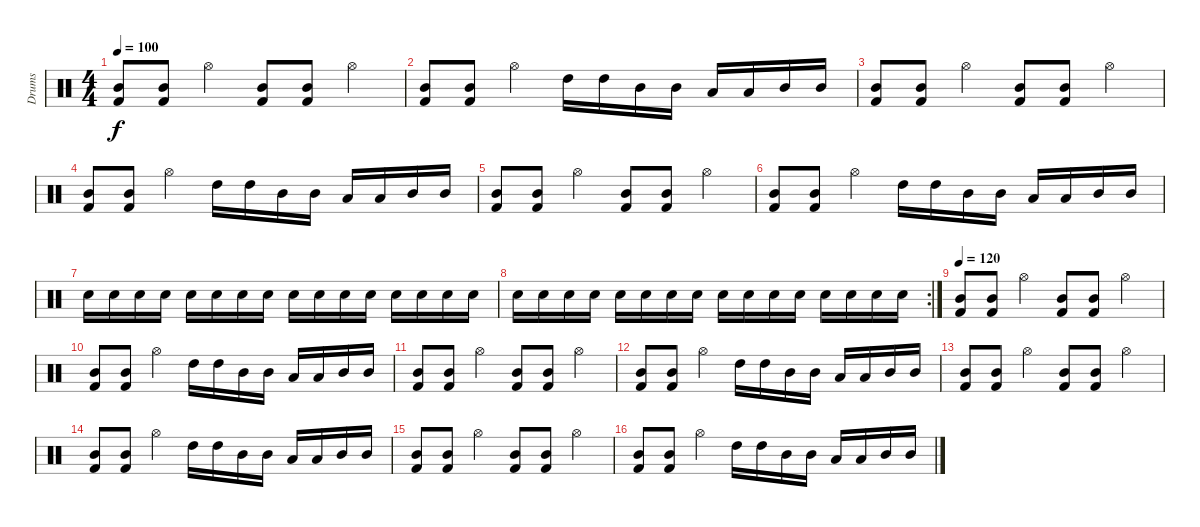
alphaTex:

\track ("Drums" "Drums") {instrument percussion}
\staff {score}
\articulation defaults
\ts (4 4)
\tempo 100
\clef neutral
\ks c
("Kick (hit) 2" "Mid Tom (hit)").8{dy f} ("Kick (hit) 2" "Mid Tom (hit)").8 "Hi-Hat (open)".4 ("Kick (hit) 2" "Mid Tom (hit)").8 ("Kick (hit) 2" "Mid Tom (hit)").8 "Hi-Hat (open)".4 |
("Kick (hit) 2" "Mid Tom (hit)").8 ("Kick (hit) 2" "Mid Tom (hit)").8 "Hi-Hat (open)".4 "High Tom (hit)".16 "High Tom (hit)".16 "Mid Tom (hit)".16 "Mid Tom (hit)".16 "Low Tom (hit)".16 "Low Tom (hit)".16 "Mid Tom (hit)".16 "Mid Tom (hit)".16 |
("Kick (hit) 2" "Mid Tom (hit)").8 ("Kick (hit) 2" "Mid Tom (hit)").8 "Hi-Hat (open)".4 ("Kick (hit) 2" "Mid Tom (hit)").8 ("Kick (hit) 2" "Mid Tom (hit)").8 "Hi-Hat (open)".4 |
("Kick (hit) 2" "Mid Tom (hit)").8 ("Kick (hit) 2" "Mid Tom (hit)").8 "Hi-Hat (open)".4 "High Tom (hit)".16 "High Tom (hit)".16 "Mid Tom (hit)".16 "Mid Tom (hit)".16 "Low Tom (hit)".16 "Low Tom (hit)".16 "Mid Tom (hit)".16 "Mid Tom (hit)".16 |
("Kick (hit) 2" "Mid Tom (hit)").8 ("Kick (hit) 2" "Mid Tom (hit)").8 "Hi-Hat (open)".4 ("Kick (hit) 2" "Mid Tom (hit)").8 ("Kick (hit) 2" "Mid Tom (hit)").8 "Hi-Hat (open)".4 |
("Kick (hit) 2" "Mid Tom (hit)").8 ("Kick (hit) 2" "Mid Tom (hit)").8 "Hi-Hat (open)".4 "High Tom (hit)".16 "High Tom (hit)".16 "Mid Tom (hit)".16 "Mid Tom (hit)".16 "Low Tom (hit)".16 "Low Tom (hit)".16 "Mid Tom (hit)".16 "Mid Tom (hit)".16 |
"Electric Snare (hit)".16 "Electric Snare (hit)".16 "Electric Snare (hit)".16 "Electric Snare (hit)".16 "Electric Snare (hit)".16 "Electric Snare (hit)".16 "Electric Snare (hit)".16 "Electric Snare (hit)".16 "Electric Snare (hit)".16 "Electric Snare (hit)".16 "Electric Snare (hit)".16 "Electric Snare (hit)".16 "Electric Snare (hit)".16 "Electric Snare (hit)".16 "Electric Snare (hit)".16 "Electric Snare (hit)".16 |
\rc 2 "Electric Snare (hit)".16 "Electric Snare (hit)".16 "Electric Snare (hit)".16 "Electric Snare (hit)".16 "Electric Snare (hit)".16 "Electric Snare (hit)".16 "Electric Snare (hit)".16 "Electric Snare (hit)".16 "Electric Snare (hit)".16 "Electric Snare (hit)".16 "Electric Snare (hit)".16 "Electric Snare (hit)".16 "Electric Snare (hit)".16 "Electric Snare (hit)".16 "Electric Snare (hit)".16 "Electric Snare (hit)".16
|
\tempo 120
("Kick (hit) 2" "Mid Tom (hit)").8 ("Kick (hit) 2" "Mid Tom (hit)").8 "Hi-Hat (open)".4 ("Kick (hit) 2" "Mid Tom (hit)").8 ("Kick (hit) 2" "Mid Tom (hit)").8 "Hi-Hat (open)".4 |
("Kick (hit) 2" "Mid Tom (hit)").8 ("Kick (hit) 2" "Mid Tom (hit)").8 "Hi-Hat (open)".4 "High Tom (hit)".16 "High Tom (hit)".16 "Mid Tom (hit)".16 "Mid Tom (hit)".16 "Low Tom (hit)".16 "Low Tom (hit)".16 "Mid Tom (hit)".16 "Mid Tom (hit)".16 |
("Kick (hit) 2" "Mid Tom (hit)").8 ("Kick (hit) 2" "Mid Tom (hit)").8 "Hi-Hat (open)".4 ("Kick (hit) 2" "Mid Tom (hit)").8 ("Kick (hit) 2" "Mid Tom (hit)").8 "Hi-Hat (open)".4 |
("Kick (hit) 2" "Mid Tom (hit)").8 ("Kick (hit) 2" "Mid Tom (hit)").8 "Hi-Hat (open)".4 "High Tom (hit)".16 "High Tom (hit)".16 "Mid Tom (hit)".16 "Mid Tom (hit)".16 "Low Tom (hit)".16 "Low Tom (hit)".16 "Mid Tom (hit)".16 "Mid Tom (hit)".16 |
("Kick (hit) 2" "Mid Tom (hit)").8 ("Kick (hit) 2" "Mid Tom (hit)").8 "Hi-Hat (open)".4 ("Kick (hit) 2" "Mid Tom (hit)").8 ("Kick (hit) 2" "Mid Tom (hit)").8 "Hi-Hat (open)".4 |
("Kick (hit) 2" "Mid Tom (hit)").8 ("Kick (hit) 2" "Mid Tom (hit)").8 "Hi-Hat (open)".4 "High Tom (hit)".16 "High Tom (hit)".16 "Mid Tom (hit)".16 "Mid Tom (hit)".16 "Low Tom (hit)".16 "Low Tom (hit)".16 "Mid Tom (hit)".16 "Mid Tom (hit)".16 |
("Kick (hit) 2" "Mid Tom (hit)").8 ("Kick (hit) 2" "Mid Tom (hit)").8 "Hi-Hat (open)".4 ("Kick (hit) 2" "Mid Tom (hit)").8 ("Kick (hit) 2" "Mid Tom (hit)").8 "Hi-Hat (open)".4 |
("Kick (hit) 2" "Mid Tom (hit)").8 ("Kick (hit) 2" "Mid Tom (hit)").8 "Hi-Hat (open)".4 "High Tom (hit)".16 "High Tom (hit)".16 "Mid Tom (hit)".16 "Mid Tom (hit)".16 "Low Tom (hit)".16 "Low Tom (hit)".16 "Mid Tom (hit)".16 "Mid Tom (hit)".16
